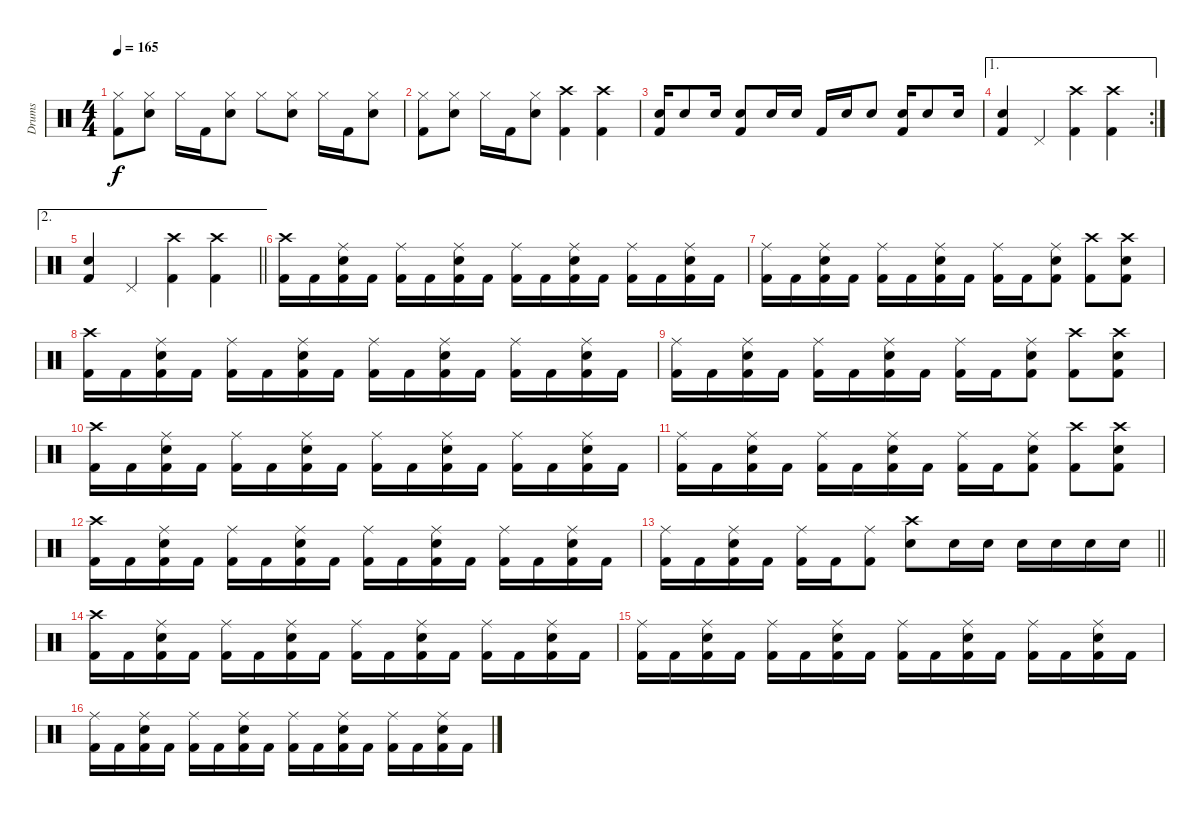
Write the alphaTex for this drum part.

\track ("Drums" "Drums") {instrument percussion}
\staff {score}
\articulation defaults
\ts (4 4)
\tempo 165
\clef neutral
\ks c
("Hi-Hat (closed)" "Kick (hit) 2").8{dy f} ("Hi-Hat (closed)" "Snare (hit) 2").8 "Hi-Hat (closed)".16 "Kick (hit) 2".16 ("Hi-Hat (closed)" "Snare (hit) 2").8 "Hi-Hat (closed)".8 ("Hi-Hat (closed)" "Snare (hit) 2").8 "Hi-Hat (closed)".16 "Kick (hit) 2".16 ("Hi-Hat (closed)" "Snare (hit) 2").8 |
("Hi-Hat (closed)" "Kick (hit) 2").8 ("Hi-Hat (closed)" "Snare (hit) 2").8 "Hi-Hat (closed)".16 "Kick (hit) 2".16 ("Hi-Hat (closed)" "Snare (hit) 2").8 ("Crash high (hit)" "Kick (hit) 2").4 ("Crash high (hit)" "Kick (hit) 2").4 |
("Snare (hit) 2" "Kick (hit) 2").16 "Snare (hit) 2".8 "Snare (hit) 2".16 ("Snare (hit) 2" "Kick (hit) 2").8 "Snare (hit) 2".16 "Snare (hit) 2".16 "Kick (hit) 2".16 "Snare (hit) 2".16 "Snare (hit) 2".8 ("Snare (hit) 2" "Kick (hit) 2").16 "Snare (hit) 2".8 "Snare (hit) 2".16 |
\ae 1
\rc 2
("Snare (hit) 2" "Kick (hit) 2").4 "Pedal Hi-Hat (hit)".4 ("Crash high (hit)" "Kick (hit) 2").4 ("Crash high (hit)" "Kick (hit) 2").4 |
\ae 2
\barLineRight lightlight
("Snare (hit) 2" "Kick (hit) 2").4 "Pedal Hi-Hat (hit)".4 ("Crash high (hit)" "Kick (hit) 2").4 ("Crash high (hit)" "Kick (hit) 2").4 |
("Crash high (hit)" "Kick (hit) 2").16 "Kick (hit) 2".16 ("Ride (middle)" "Snare (hit) 2" "Kick (hit) 2").16 "Kick (hit) 2".16 ("Ride (middle)" "Kick (hit) 2").16 "Kick (hit) 2".16 ("Ride (middle)" "Snare (hit) 2" "Kick (hit) 2").16 "Kick (hit) 2".16 ("Ride (middle)" "Kick (hit) 2").16 "Kick (hit) 2".16 ("Ride (middle)" "Snare (hit) 2" "Kick (hit) 2").16 "Kick (hit) 2".16 ("Ride (middle)" "Kick (hit) 2").16 "Kick (hit) 2".16 ("Ride (middle)" "Snare (hit) 2" "Kick (hit) 2").16 "Kick (hit) 2".16 |
("Ride (middle)" "Kick (hit) 2").16 "Kick (hit) 2".16 ("Ride (middle)" "Snare (hit) 2" "Kick (hit) 2").16 "Kick (hit) 2".16 ("Ride (middle)" "Kick (hit) 2").16 "Kick (hit) 2".16 ("Ride (middle)" "Snare (hit) 2" "Kick (hit) 2").16 "Kick (hit) 2".16 ("Ride (middle)" "Kick (hit) 2").16 "Kick (hit) 2".16 ("Ride (middle)" "Snare (hit) 2" "Kick (hit) 2").8 ("Crash high (hit)" "Kick (hit) 2").8 ("Crash high (hit)" "Snare (hit) 2" "Kick (hit) 2").8 |
("Crash high (hit)" "Kick (hit) 2").16 "Kick (hit) 2".16 ("Ride (middle)" "Snare (hit) 2" "Kick (hit) 2").16 "Kick (hit) 2".16 ("Ride (middle)" "Kick (hit) 2").16 "Kick (hit) 2".16 ("Ride (middle)" "Snare (hit) 2" "Kick (hit) 2").16 "Kick (hit) 2".16 ("Ride (middle)" "Kick (hit) 2").16 "Kick (hit) 2".16 ("Ride (middle)" "Snare (hit) 2" "Kick (hit) 2").16 "Kick (hit) 2".16 ("Ride (middle)" "Kick (hit) 2").16 "Kick (hit) 2".16 ("Ride (middle)" "Snare (hit) 2" "Kick (hit) 2").16 "Kick (hit) 2".16 |
("Ride (middle)" "Kick (hit) 2").16 "Kick (hit) 2".16 ("Ride (middle)" "Snare (hit) 2" "Kick (hit) 2").16 "Kick (hit) 2".16 ("Ride (middle)" "Kick (hit) 2").16 "Kick (hit) 2".16 ("Ride (middle)" "Snare (hit) 2" "Kick (hit) 2").16 "Kick (hit) 2".16 ("Ride (middle)" "Kick (hit) 2").16 "Kick (hit) 2".16 ("Ride (middle)" "Snare (hit) 2" "Kick (hit) 2").8 ("Crash high (hit)" "Kick (hit) 2").8 ("Crash high (hit)" "Snare (hit) 2" "Kick (hit) 2").8 |
("Crash high (hit)" "Kick (hit) 2").16 "Kick (hit) 2".16 ("Ride (middle)" "Snare (hit) 2" "Kick (hit) 2").16 "Kick (hit) 2".16 ("Ride (middle)" "Kick (hit) 2").16 "Kick (hit) 2".16 ("Ride (middle)" "Snare (hit) 2" "Kick (hit) 2").16 "Kick (hit) 2".16 ("Ride (middle)" "Kick (hit) 2").16 "Kick (hit) 2".16 ("Ride (middle)" "Snare (hit) 2" "Kick (hit) 2").16 "Kick (hit) 2".16 ("Ride (middle)" "Kick (hit) 2").16 "Kick (hit) 2".16 ("Ride (middle)" "Snare (hit) 2" "Kick (hit) 2").16 "Kick (hit) 2".16 |
("Ride (middle)" "Kick (hit) 2").16 "Kick (hit) 2".16 ("Ride (middle)" "Snare (hit) 2" "Kick (hit) 2").16 "Kick (hit) 2".16 ("Ride (middle)" "Kick (hit) 2").16 "Kick (hit) 2".16 ("Ride (middle)" "Snare (hit) 2" "Kick (hit) 2").16 "Kick (hit) 2".16 ("Ride (middle)" "Kick (hit) 2").16 "Kick (hit) 2".16 ("Ride (middle)" "Snare (hit) 2" "Kick (hit) 2").8 ("Crash high (hit)" "Kick (hit) 2").8 ("Crash high (hit)" "Snare (hit) 2" "Kick (hit) 2").8 |
("Crash high (hit)" "Kick (hit) 2").16 "Kick (hit) 2".16 ("Ride (middle)" "Snare (hit) 2" "Kick (hit) 2").16 "Kick (hit) 2".16 ("Ride (middle)" "Kick (hit) 2").16 "Kick (hit) 2".16 ("Ride (middle)" "Snare (hit) 2" "Kick (hit) 2").16 "Kick (hit) 2".16 ("Ride (middle)" "Kick (hit) 2").16 "Kick (hit) 2".16 ("Ride (middle)" "Snare (hit) 2" "Kick (hit) 2").16 "Kick (hit) 2".16 ("Ride (middle)" "Kick (hit) 2").16 "Kick (hit) 2".16 ("Ride (middle)" "Snare (hit) 2" "Kick (hit) 2").16 "Kick (hit) 2".16 |
\barLineRight lightlight
("Ride (middle)" "Kick (hit) 2").16 "Kick (hit) 2".16 ("Ride (middle)" "Snare (hit) 2" "Kick (hit) 2").16 "Kick (hit) 2".16 ("Ride (middle)" "Kick (hit) 2").16 "Kick (hit) 2".16 ("Ride (middle)" "Kick (hit) 2").8 ("Crash high (hit)" "Snare (hit) 2").8 "Snare (hit) 2".16 "Snare (hit) 2".16 "Snare (hit) 2".16 "Snare (hit) 2".16 "Snare (hit) 2".16 "Snare (hit) 2".16 |
("Crash high (hit)" "Kick (hit) 2").16 "Kick (hit) 2".16 ("Ride (middle)" "Snare (hit) 2" "Kick (hit) 2").16 "Kick (hit) 2".16 ("Ride (middle)" "Kick (hit) 2").16 "Kick (hit) 2".16 ("Ride (middle)" "Snare (hit) 2" "Kick (hit) 2").16 "Kick (hit) 2".16 ("Ride (middle)" "Kick (hit) 2").16 "Kick (hit) 2".16 ("Ride (middle)" "Snare (hit) 2" "Kick (hit) 2").16 "Kick (hit) 2".16 ("Ride (middle)" "Kick (hit) 2").16 "Kick (hit) 2".16 ("Ride (middle)" "Snare (hit) 2" "Kick (hit) 2").16 "Kick (hit) 2".16 |
("Ride (middle)" "Kick (hit) 2").16 "Kick (hit) 2".16 ("Ride (middle)" "Snare (hit) 2" "Kick (hit) 2").16 "Kick (hit) 2".16 ("Ride (middle)" "Kick (hit) 2").16 "Kick (hit) 2".16 ("Ride (middle)" "Snare (hit) 2" "Kick (hit) 2").16 "Kick (hit) 2".16 ("Ride (middle)" "Kick (hit) 2").16 "Kick (hit) 2".16 ("Ride (middle)" "Snare (hit) 2" "Kick (hit) 2").16 "Kick (hit) 2".16 ("Ride (middle)" "Kick (hit) 2").16 "Kick (hit) 2".16 ("Ride (middle)" "Snare (hit) 2" "Kick (hit) 2").16 "Kick (hit) 2".16 |
("Ride (middle)" "Kick (hit) 2").16 "Kick (hit) 2".16 ("Ride (middle)" "Snare (hit) 2" "Kick (hit) 2").16 "Kick (hit) 2".16 ("Ride (middle)" "Kick (hit) 2").16 "Kick (hit) 2".16 ("Ride (middle)" "Snare (hit) 2" "Kick (hit) 2").16 "Kick (hit) 2".16 ("Ride (middle)" "Kick (hit) 2").16 "Kick (hit) 2".16 ("Ride (middle)" "Snare (hit) 2" "Kick (hit) 2").16 "Kick (hit) 2".16 ("Ride (middle)" "Kick (hit) 2").16 "Kick (hit) 2".16 ("Ride (middle)" "Snare (hit) 2" "Kick (hit) 2").16 "Kick (hit) 2".16
